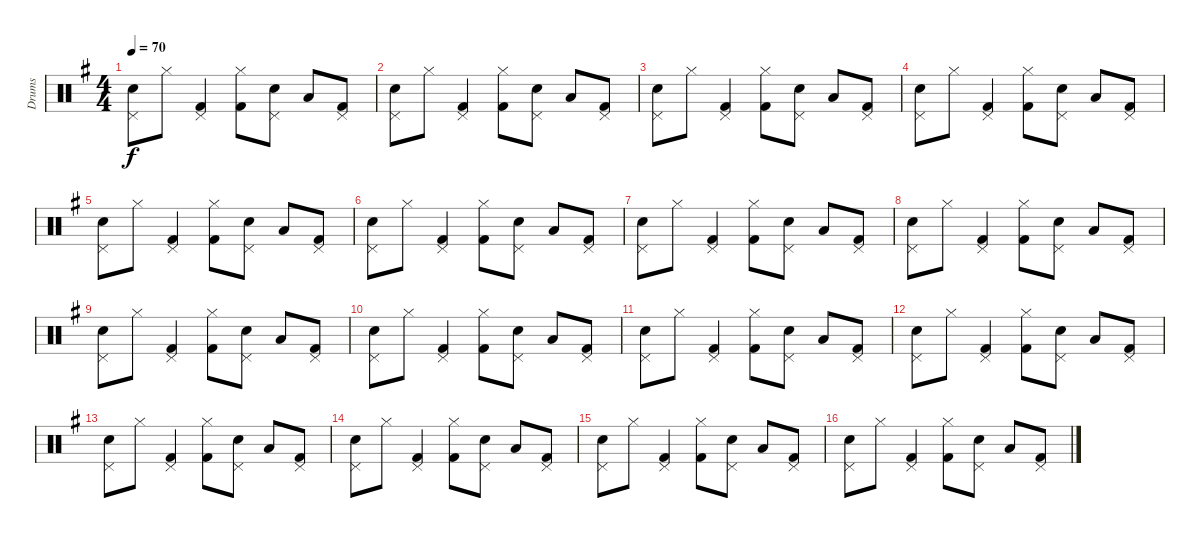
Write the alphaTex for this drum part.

\track ("Drums" "Drums") {instrument percussion}
\staff {score}
\articulation defaults
\ts (4 4)
\tempo 70
\clef neutral
\ks eminor
("Pedal Hi-Hat (hit)" "Snare (hit) 2").8{dy f} "Hi-Hat (closed)".8 ("Pedal Hi-Hat (hit)" "Kick (hit) 2").4 ("Hi-Hat (closed)" "Kick (hit) 2").8 ("Pedal Hi-Hat (hit)" "Snare (hit) 2").8 "Low Floor Tom (hit)".8 ("Pedal Hi-Hat (hit)" "Kick (hit) 2").8 |
("Pedal Hi-Hat (hit)" "Snare (hit) 2").8 "Hi-Hat (closed)".8 ("Pedal Hi-Hat (hit)" "Kick (hit) 2").4 ("Hi-Hat (closed)" "Kick (hit) 2").8 ("Pedal Hi-Hat (hit)" "Snare (hit) 2").8 "Low Floor Tom (hit)".8 ("Pedal Hi-Hat (hit)" "Kick (hit) 2").8 |
("Pedal Hi-Hat (hit)" "Snare (hit) 2").8 "Hi-Hat (closed)".8 ("Pedal Hi-Hat (hit)" "Kick (hit) 2").4 ("Hi-Hat (closed)" "Kick (hit) 2").8 ("Pedal Hi-Hat (hit)" "Snare (hit) 2").8 "Low Floor Tom (hit)".8 ("Pedal Hi-Hat (hit)" "Kick (hit) 2").8 |
("Pedal Hi-Hat (hit)" "Snare (hit) 2").8 "Hi-Hat (closed)".8 ("Pedal Hi-Hat (hit)" "Kick (hit) 2").4 ("Hi-Hat (closed)" "Kick (hit) 2").8 ("Pedal Hi-Hat (hit)" "Snare (hit) 2").8 "Low Floor Tom (hit)".8 ("Pedal Hi-Hat (hit)" "Kick (hit) 2").8 |
("Pedal Hi-Hat (hit)" "Snare (hit) 2").8 "Hi-Hat (closed)".8 ("Pedal Hi-Hat (hit)" "Kick (hit) 2").4 ("Hi-Hat (closed)" "Kick (hit) 2").8 ("Pedal Hi-Hat (hit)" "Snare (hit) 2").8 "Low Floor Tom (hit)".8 ("Pedal Hi-Hat (hit)" "Kick (hit) 2").8 |
("Pedal Hi-Hat (hit)" "Snare (hit) 2").8 "Hi-Hat (closed)".8 ("Pedal Hi-Hat (hit)" "Kick (hit) 2").4 ("Hi-Hat (closed)" "Kick (hit) 2").8 ("Pedal Hi-Hat (hit)" "Snare (hit) 2").8 "Low Floor Tom (hit)".8 ("Pedal Hi-Hat (hit)" "Kick (hit) 2").8 |
("Pedal Hi-Hat (hit)" "Snare (hit) 2").8 "Hi-Hat (closed)".8 ("Pedal Hi-Hat (hit)" "Kick (hit) 2").4 ("Hi-Hat (closed)" "Kick (hit) 2").8 ("Pedal Hi-Hat (hit)" "Snare (hit) 2").8 "Low Floor Tom (hit)".8 ("Pedal Hi-Hat (hit)" "Kick (hit) 2").8 |
("Pedal Hi-Hat (hit)" "Snare (hit) 2").8 "Hi-Hat (closed)".8 ("Pedal Hi-Hat (hit)" "Kick (hit) 2").4 ("Hi-Hat (closed)" "Kick (hit) 2").8 ("Pedal Hi-Hat (hit)" "Snare (hit) 2").8 "Low Floor Tom (hit)".8 ("Pedal Hi-Hat (hit)" "Kick (hit) 2").8 |
("Pedal Hi-Hat (hit)" "Snare (hit) 2").8 "Hi-Hat (closed)".8 ("Pedal Hi-Hat (hit)" "Kick (hit) 2").4 ("Hi-Hat (closed)" "Kick (hit) 2").8 ("Pedal Hi-Hat (hit)" "Snare (hit) 2").8 "Low Floor Tom (hit)".8 ("Pedal Hi-Hat (hit)" "Kick (hit) 2").8 |
("Pedal Hi-Hat (hit)" "Snare (hit) 2").8 "Hi-Hat (closed)".8 ("Pedal Hi-Hat (hit)" "Kick (hit) 2").4 ("Hi-Hat (closed)" "Kick (hit) 2").8 ("Pedal Hi-Hat (hit)" "Snare (hit) 2").8 "Low Floor Tom (hit)".8 ("Pedal Hi-Hat (hit)" "Kick (hit) 2").8 |
("Pedal Hi-Hat (hit)" "Snare (hit) 2").8 "Hi-Hat (closed)".8 ("Pedal Hi-Hat (hit)" "Kick (hit) 2").4 ("Hi-Hat (closed)" "Kick (hit) 2").8 ("Pedal Hi-Hat (hit)" "Snare (hit) 2").8 "Low Floor Tom (hit)".8 ("Pedal Hi-Hat (hit)" "Kick (hit) 2").8 |
("Pedal Hi-Hat (hit)" "Snare (hit) 2").8 "Hi-Hat (closed)".8 ("Pedal Hi-Hat (hit)" "Kick (hit) 2").4 ("Hi-Hat (closed)" "Kick (hit) 2").8 ("Pedal Hi-Hat (hit)" "Snare (hit) 2").8 "Low Floor Tom (hit)".8 ("Pedal Hi-Hat (hit)" "Kick (hit) 2").8 |
("Pedal Hi-Hat (hit)" "Snare (hit) 2").8 "Hi-Hat (closed)".8 ("Pedal Hi-Hat (hit)" "Kick (hit) 2").4 ("Hi-Hat (closed)" "Kick (hit) 2").8 ("Pedal Hi-Hat (hit)" "Snare (hit) 2").8 "Low Floor Tom (hit)".8 ("Pedal Hi-Hat (hit)" "Kick (hit) 2").8 |
("Pedal Hi-Hat (hit)" "Snare (hit) 2").8 "Hi-Hat (closed)".8 ("Pedal Hi-Hat (hit)" "Kick (hit) 2").4 ("Hi-Hat (closed)" "Kick (hit) 2").8 ("Pedal Hi-Hat (hit)" "Snare (hit) 2").8 "Low Floor Tom (hit)".8 ("Pedal Hi-Hat (hit)" "Kick (hit) 2").8 |
("Pedal Hi-Hat (hit)" "Snare (hit) 2").8 "Hi-Hat (closed)".8 ("Pedal Hi-Hat (hit)" "Kick (hit) 2").4 ("Hi-Hat (closed)" "Kick (hit) 2").8 ("Pedal Hi-Hat (hit)" "Snare (hit) 2").8 "Low Floor Tom (hit)".8 ("Pedal Hi-Hat (hit)" "Kick (hit) 2").8 |
("Pedal Hi-Hat (hit)" "Snare (hit) 2").8 "Hi-Hat (closed)".8 ("Pedal Hi-Hat (hit)" "Kick (hit) 2").4 ("Hi-Hat (closed)" "Kick (hit) 2").8 ("Pedal Hi-Hat (hit)" "Snare (hit) 2").8 "Low Floor Tom (hit)".8 ("Pedal Hi-Hat (hit)" "Kick (hit) 2").8
